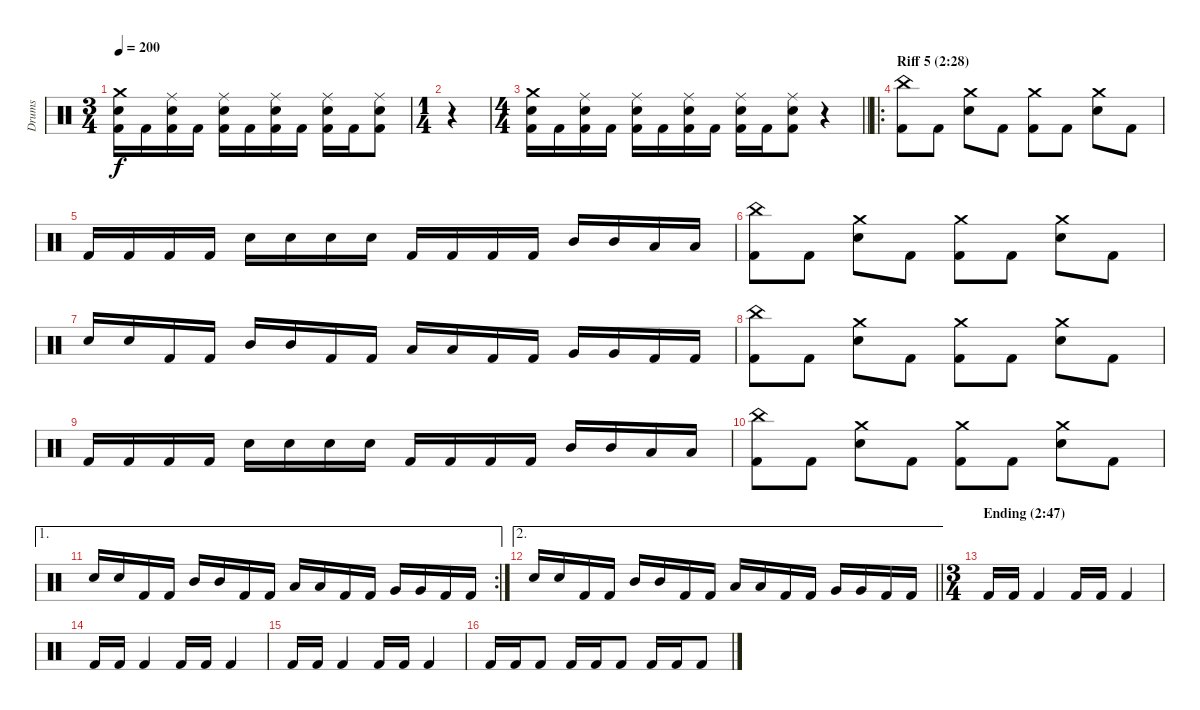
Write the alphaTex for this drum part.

\track ("Drums" "Drums") {instrument percussion}
\staff {score}
\articulation defaults
\ts (3 4)
\tempo 200
\clef neutral
\ks c
("Crash medium (hit)" "Electric Snare (hit)" "Kick (hit) 2").16{dy f} "Kick (hit) 2".16 ("Ride (middle)" "Electric Snare (hit)" "Kick (hit) 2").16 "Kick (hit) 2".16 ("Ride (middle)" "Electric Snare (hit)" "Kick (hit) 2").16 "Kick (hit) 2".16 ("Ride (middle)" "Electric Snare (hit)" "Kick (hit) 2").16 "Kick (hit) 2".16 ("Ride (middle)" "Electric Snare (hit)" "Kick (hit) 2").16 "Kick (hit) 2".16 ("Ride (middle)" "Electric Snare (hit)" "Kick (hit) 2").8 |
\ts (1 4)
r.4 |
\ts (4 4)
\barLineRight lightlight
("Crash medium (hit)" "Electric Snare (hit)" "Kick (hit) 2").16 "Kick (hit) 2".16 ("Ride (middle)" "Electric Snare (hit)" "Kick (hit) 2").16 "Kick (hit) 2".16 ("Ride (middle)" "Electric Snare (hit)" "Kick (hit) 2").16 "Kick (hit) 2".16 ("Ride (middle)" "Electric Snare (hit)" "Kick (hit) 2").16 "Kick (hit) 2".16 ("Ride (middle)" "Electric Snare (hit)" "Kick (hit) 2").16 "Kick (hit) 2".16 ("Ride (middle)" "Electric Snare (hit)" "Kick (hit) 2").8 r.4 |
\ro
\section ("" "Riff 5 (2:28)")
("China (hit)" "Kick (hit) 2").8 "Kick (hit) 2".8 ("Crash medium (hit)" "Electric Snare (hit)").8 "Kick (hit) 2".8 ("Crash medium (hit)" "Kick (hit) 2").8 "Kick (hit) 2".8 ("Crash medium (hit)" "Electric Snare (hit)").8 "Kick (hit) 2".8 |
"Kick (hit) 2".16 "Kick (hit) 2".16 "Kick (hit) 2".16 "Kick (hit) 2".16 "Electric Snare (hit)".16 "Electric Snare (hit)".16 "Electric Snare (hit)".16 "Electric Snare (hit)".16 "Kick (hit) 2".16 "Kick (hit) 2".16 "Kick (hit) 2".16 "Kick (hit) 2".16 "Mid Tom (hit)".16 "Mid Tom (hit)".16 "Low Tom (hit)".16 "Low Tom (hit)".16 |
("China (hit)" "Kick (hit) 2").8 "Kick (hit) 2".8 ("Crash medium (hit)" "Electric Snare (hit)").8 "Kick (hit) 2".8 ("Crash medium (hit)" "Kick (hit) 2").8 "Kick (hit) 2".8 ("Crash medium (hit)" "Electric Snare (hit)").8 "Kick (hit) 2".8 |
"Electric Snare (hit)".16 "Electric Snare (hit)".16 "Kick (hit) 2".16 "Kick (hit) 2".16 "Mid Tom (hit)".16 "Mid Tom (hit)".16 "Kick (hit) 2".16 "Kick (hit) 2".16 "Low Tom (hit)".16 "Low Tom (hit)".16 "Kick (hit) 2".16 "Kick (hit) 2".16 "Very Low Tom (hit)".16 "Very Low Tom (hit)".16 "Kick (hit) 2".16 "Kick (hit) 2".16 |
("China (hit)" "Kick (hit) 2").8 "Kick (hit) 2".8 ("Crash medium (hit)" "Electric Snare (hit)").8 "Kick (hit) 2".8 ("Crash medium (hit)" "Kick (hit) 2").8 "Kick (hit) 2".8 ("Crash medium (hit)" "Electric Snare (hit)").8 "Kick (hit) 2".8 |
"Kick (hit) 2".16 "Kick (hit) 2".16 "Kick (hit) 2".16 "Kick (hit) 2".16 "Electric Snare (hit)".16 "Electric Snare (hit)".16 "Electric Snare (hit)".16 "Electric Snare (hit)".16 "Kick (hit) 2".16 "Kick (hit) 2".16 "Kick (hit) 2".16 "Kick (hit) 2".16 "Mid Tom (hit)".16 "Mid Tom (hit)".16 "Low Tom (hit)".16 "Low Tom (hit)".16 |
("China (hit)" "Kick (hit) 2").8 "Kick (hit) 2".8 ("Crash medium (hit)" "Electric Snare (hit)").8 "Kick (hit) 2".8 ("Crash medium (hit)" "Kick (hit) 2").8 "Kick (hit) 2".8 ("Crash medium (hit)" "Electric Snare (hit)").8 "Kick (hit) 2".8 |
\ae 1
\rc 2 "Electric Snare (hit)".16 "Electric Snare (hit)".16 "Kick (hit) 2".16 "Kick (hit) 2".16 "Mid Tom (hit)".16 "Mid Tom (hit)".16 "Kick (hit) 2".16 "Kick (hit) 2".16 "Low Tom (hit)".16 "Low Tom (hit)".16 "Kick (hit) 2".16 "Kick (hit) 2".16 "Very Low Tom (hit)".16 "Very Low Tom (hit)".16 "Kick (hit) 2".16 "Kick (hit) 2".16
|
\ae 2
\barLineRight lightlight "Electric Snare (hit)".16 "Electric Snare (hit)".16 "Kick (hit) 2".16 "Kick (hit) 2".16 "Mid Tom (hit)".16 "Mid Tom (hit)".16 "Kick (hit) 2".16 "Kick (hit) 2".16 "Low Tom (hit)".16 "Low Tom (hit)".16 "Kick (hit) 2".16 "Kick (hit) 2".16 "Very Low Tom (hit)".16 "Very Low Tom (hit)".16 "Kick (hit) 2".16 "Kick (hit) 2".16
|
\ts (3 4)
\section ("" "Ending (2:47)")
"Kick (hit) 2".16 "Kick (hit) 2".16 "Kick (hit) 2".4 "Kick (hit) 2".16 "Kick (hit) 2".16 "Kick (hit) 2".4 |
"Kick (hit) 2".16 "Kick (hit) 2".16 "Kick (hit) 2".4 "Kick (hit) 2".16 "Kick (hit) 2".16 "Kick (hit) 2".4 |
"Kick (hit) 2".16 "Kick (hit) 2".16 "Kick (hit) 2".4 "Kick (hit) 2".16 "Kick (hit) 2".16 "Kick (hit) 2".4 |
"Kick (hit) 2".16 "Kick (hit) 2".16 "Kick (hit) 2".8 "Kick (hit) 2".16 "Kick (hit) 2".16 "Kick (hit) 2".8 "Kick (hit) 2".16 "Kick (hit) 2".16 "Kick (hit) 2".8
